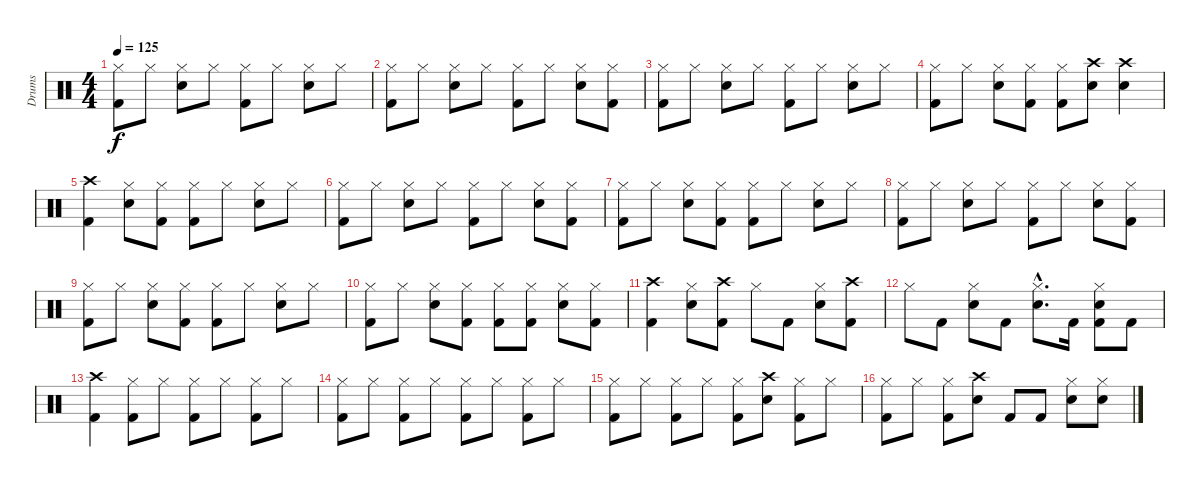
\track ("Drums" "Drums") {instrument percussion}
\staff {score}
\articulation defaults
\ts (4 4)
\tempo 125
\clef neutral
\ks c
("Hi-Hat (closed)" "Kick (hit) 2").8{dy f} "Hi-Hat (closed)".8 ("Hi-Hat (closed)" "Electric Snare (hit)").8 "Hi-Hat (closed)".8 ("Hi-Hat (closed)" "Kick (hit) 2").8 "Hi-Hat (closed)".8 ("Hi-Hat (closed)" "Electric Snare (hit)").8 "Hi-Hat (closed)".8 |
("Hi-Hat (closed)" "Kick (hit) 2").8 "Hi-Hat (closed)".8 ("Hi-Hat (closed)" "Electric Snare (hit)").8 "Hi-Hat (closed)".8 ("Hi-Hat (closed)" "Kick (hit) 2").8 "Hi-Hat (closed)".8 ("Hi-Hat (closed)" "Electric Snare (hit)").8 ("Hi-Hat (closed)" "Kick (hit) 2").8 |
("Hi-Hat (closed)" "Kick (hit) 2").8 "Hi-Hat (closed)".8 ("Hi-Hat (closed)" "Electric Snare (hit)").8 "Hi-Hat (closed)".8 ("Hi-Hat (closed)" "Kick (hit) 2").8 "Hi-Hat (closed)".8 ("Hi-Hat (closed)" "Electric Snare (hit)").8 "Hi-Hat (closed)".8 |
("Hi-Hat (closed)" "Kick (hit) 2").8 "Hi-Hat (closed)".8 ("Hi-Hat (closed)" "Electric Snare (hit)").8 ("Hi-Hat (closed)" "Kick (hit) 2").8 ("Hi-Hat (closed)" "Kick (hit) 2").8 ("Crash high (hit)" "Electric Snare (hit)").8 ("Crash high (hit)" "Electric Snare (hit)").4 |
("Crash high (hit)" "Kick (hit) 2").4 ("Hi-Hat (closed)" "Electric Snare (hit)").8 ("Hi-Hat (closed)" "Kick (hit) 2").8 ("Hi-Hat (closed)" "Kick (hit) 2").8 "Hi-Hat (closed)".8 ("Hi-Hat (closed)" "Electric Snare (hit)").8 "Hi-Hat (closed)".8 |
("Hi-Hat (closed)" "Kick (hit) 2").8 "Hi-Hat (closed)".8 ("Hi-Hat (closed)" "Electric Snare (hit)").8 "Hi-Hat (closed)".8 ("Hi-Hat (closed)" "Kick (hit) 2").8 "Hi-Hat (closed)".8 ("Hi-Hat (closed)" "Electric Snare (hit)").8 ("Hi-Hat (closed)" "Kick (hit) 2").8 |
("Hi-Hat (closed)" "Kick (hit) 2").8 "Hi-Hat (closed)".8 ("Hi-Hat (closed)" "Electric Snare (hit)").8 ("Hi-Hat (closed)" "Kick (hit) 2").8 ("Hi-Hat (closed)" "Kick (hit) 2").8 "Hi-Hat (closed)".8 ("Hi-Hat (closed)" "Electric Snare (hit)").8 "Hi-Hat (closed)".8 |
("Hi-Hat (closed)" "Kick (hit) 2").8 "Hi-Hat (closed)".8 ("Hi-Hat (closed)" "Electric Snare (hit)").8 "Hi-Hat (closed)".8 ("Hi-Hat (closed)" "Kick (hit) 2").8 "Hi-Hat (closed)".8 ("Hi-Hat (closed)" "Electric Snare (hit)").8 ("Hi-Hat (closed)" "Kick (hit) 2").8 |
("Hi-Hat (closed)" "Kick (hit) 2").8 "Hi-Hat (closed)".8 ("Hi-Hat (closed)" "Electric Snare (hit)").8 ("Hi-Hat (closed)" "Kick (hit) 2").8 ("Hi-Hat (closed)" "Kick (hit) 2").8 "Hi-Hat (closed)".8 ("Hi-Hat (closed)" "Electric Snare (hit)").8 "Hi-Hat (closed)".8 |
("Hi-Hat (closed)" "Kick (hit) 2").8 "Hi-Hat (closed)".8 ("Hi-Hat (closed)" "Electric Snare (hit)").8 ("Hi-Hat (closed)" "Kick (hit) 2").8 ("Hi-Hat (closed)" "Kick (hit) 2").8 ("Hi-Hat (closed)" "Kick (hit) 2").8 ("Hi-Hat (closed)" "Electric Snare (hit)").8 ("Hi-Hat (closed)" "Kick (hit) 2").8 |
("Crash high (hit)" "Kick (hit) 2").4 ("Hi-Hat (closed)" "Electric Snare (hit)").8 ("Crash high (hit)" "Kick (hit) 2").8 "Hi-Hat (closed)".8 "Kick (hit) 2".8 ("Hi-Hat (closed)" "Electric Snare (hit)").8 ("Crash high (hit)" "Kick (hit) 2").8 |
"Hi-Hat (closed)".8 "Kick (hit) 2".8 ("Hi-Hat (closed)" "Electric Snare (hit)").8 "Kick (hit) 2".8 ("Hi-Hat (closed)"{hac} "Electric Snare (hit)"{hac}).8{d} "Kick (hit) 2".16 ("Hi-Hat (closed)" "Electric Snare (hit)" "Kick (hit) 2").8 "Kick (hit) 2".8 |
("Crash high (hit)" "Kick (hit) 2").4 ("Hi-Hat (closed)" "Kick (hit) 2").8 "Hi-Hat (closed)".8 ("Hi-Hat (closed)" "Kick (hit) 2").8 "Hi-Hat (closed)".8 ("Hi-Hat (closed)" "Kick (hit) 2").8 "Hi-Hat (closed)".8 |
("Hi-Hat (closed)" "Kick (hit) 2").8 "Hi-Hat (closed)".8 ("Hi-Hat (closed)" "Kick (hit) 2").8 "Hi-Hat (closed)".8 ("Hi-Hat (closed)" "Kick (hit) 2").8 "Hi-Hat (closed)".8 ("Hi-Hat (closed)" "Kick (hit) 2").8 "Hi-Hat (closed)".8 |
("Hi-Hat (closed)" "Kick (hit) 2").8 "Hi-Hat (closed)".8 ("Hi-Hat (closed)" "Kick (hit) 2").8 "Hi-Hat (closed)".8 ("Hi-Hat (closed)" "Kick (hit) 2").8 ("Crash high (hit)" "Electric Snare (hit)").8 ("Hi-Hat (closed)" "Kick (hit) 2").8 "Hi-Hat (closed)".8 |
("Hi-Hat (closed)" "Kick (hit) 2").8 "Hi-Hat (closed)".8 ("Hi-Hat (closed)" "Kick (hit) 2").8 ("Crash high (hit)" "Electric Snare (hit)").8 "Kick (hit) 2".8 "Kick (hit) 2".8 ("Hi-Hat (closed)" "Electric Snare (hit)").8 ("Hi-Hat (closed)" "Electric Snare (hit)").8
